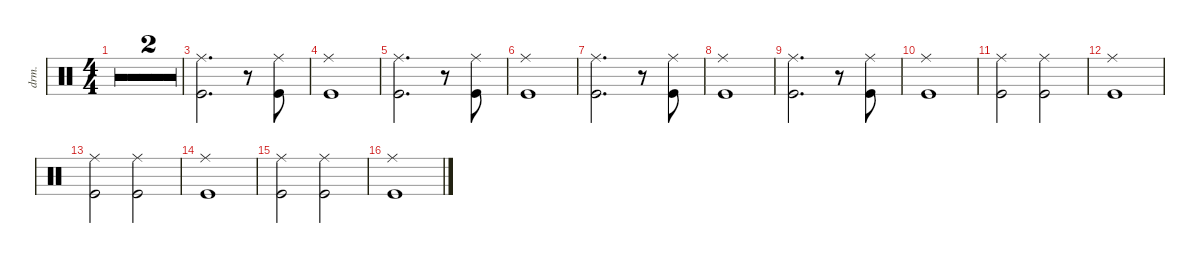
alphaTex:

\defaultSystemsLayout 4
\hideDynamics
\bracketExtendMode nobrackets
\otherSystemsTrackNameOrientation horizontal
\track ("Drums" "drm.") {multiBarRest instrument percussion}
\staff
\articulation defaults
\ts (4 4)
\tempo 140
\clef neutral
\ks c
r.1{dy pp} |
r.1 |
("Kick (hit)" "Ride (middle)").2{d} r.8 ("Kick (hit)" "Ride (middle)").8 |
("Kick (hit)" "Ride (middle)").1 |
("Kick (hit)" "Ride (middle)").2{d} r.8 ("Kick (hit)" "Ride (middle)").8 |
("Kick (hit)" "Ride (middle)").1 |
("Kick (hit)" "Ride (middle)").2{d} r.8 ("Kick (hit)" "Ride (middle)").8 |
("Kick (hit)" "Ride (middle)").1 |
("Kick (hit)" "Ride (middle)").2{d} r.8 ("Kick (hit)" "Ride (middle)").8 |
("Kick (hit)" "Ride (middle)").1 |
("Kick (hit)" "Ride (middle)").2 ("Kick (hit)" "Ride (middle)").2 |
("Kick (hit)" "Ride (middle)").1 |
("Kick (hit)" "Ride (middle)").2 ("Kick (hit)" "Ride (middle)").2 |
("Kick (hit)" "Ride (middle)").1 |
("Kick (hit)" "Ride (middle)").2 ("Kick (hit)" "Ride (middle)").2 |
("Kick (hit)" "Ride (middle)").1
